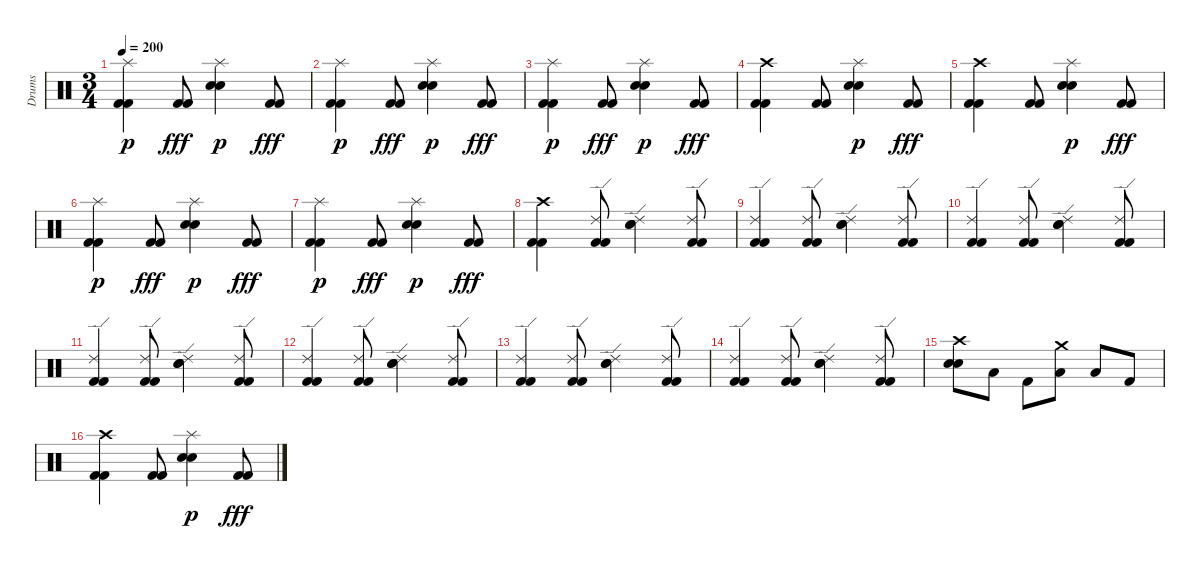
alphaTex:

\track ("Drums" "Drums") {instrument percussion bank 41}
\staff
\articulation defaults
\ts (3 4)
\tempo 200
\clef neutral
\ks c
("Kick (hit) 2" "Kick (hit) 2" "Splash (hit)").4{dy p} ("Kick (hit) 2" "Kick (hit) 2").8{dy fff} ("Snare (hit) 2" "Electric Snare (hit)" "Splash (hit)").4{dy p} ("Kick (hit) 2" "Kick (hit) 2").8{dy fff} |
("Kick (hit) 2" "Kick (hit) 2" "Splash (hit)").4{dy p} ("Kick (hit) 2" "Kick (hit) 2").8{dy fff} ("Snare (hit) 2" "Electric Snare (hit)" "Splash (hit)").4{dy p} ("Kick (hit) 2" "Kick (hit) 2").8{dy fff} |
("Kick (hit) 2" "Kick (hit) 2" "Splash (hit)").4{dy p} ("Kick (hit) 2" "Kick (hit) 2").8{dy fff} ("Snare (hit) 2" "Electric Snare (hit)" "Splash (hit)").4{dy p} ("Kick (hit) 2" "Kick (hit) 2").8{dy fff} |
("Kick (hit) 2" "Kick (hit) 2" "Crash high (hit)").4 ("Kick (hit) 2" "Kick (hit) 2").8 ("Snare (hit) 2" "Electric Snare (hit)" "Splash (hit)").4{dy p} ("Kick (hit) 2" "Kick (hit) 2").8{dy fff} |
("Kick (hit) 2" "Kick (hit) 2" "Crash high (hit)").4 ("Kick (hit) 2" "Kick (hit) 2").8 ("Snare (hit) 2" "Electric Snare (hit)" "Splash (hit)").4{dy p} ("Kick (hit) 2" "Kick (hit) 2").8{dy fff} |
("Kick (hit) 2" "Kick (hit) 2" "Splash (hit)").4{dy p} ("Kick (hit) 2" "Kick (hit) 2").8{dy fff} ("Snare (hit) 2" "Electric Snare (hit)" "Splash (hit)").4{dy p} ("Kick (hit) 2" "Kick (hit) 2").8{dy fff} |
("Kick (hit) 2" "Kick (hit) 2" "Splash (hit)").4{dy p} ("Kick (hit) 2" "Kick (hit) 2").8{dy fff} ("Snare (hit) 2" "Electric Snare (hit)" "Splash (hit)").4{dy p} ("Kick (hit) 2" "Kick (hit) 2").8{dy fff} |
("Kick (hit) 2" "Kick (hit) 2" "Crash high (hit)").4 ("Kick (hit) 2" "Kick (hit) 2" "Ride (edge) 2").8 ("Snare (hit) 2" "Electric Snare (hit)" "Ride (edge) 2").4 ("Kick (hit) 2" "Ride (edge) 2" "Kick (hit) 2").8 |
("Kick (hit) 2" "Ride (edge) 2" "Kick (hit) 2").4 ("Kick (hit) 2" "Ride (edge) 2" "Kick (hit) 2").8 ("Snare (hit) 2" "Ride (edge) 2" "Electric Snare (hit)").4 ("Kick (hit) 2" "Ride (edge) 2" "Kick (hit) 2").8 |
("Kick (hit) 2" "Ride (edge) 2" "Kick (hit) 2").4 ("Kick (hit) 2" "Ride (edge) 2" "Kick (hit) 2").8 ("Snare (hit) 2" "Ride (edge) 2" "Electric Snare (hit)").4 ("Kick (hit) 2" "Ride (edge) 2" "Kick (hit) 2").8 |
("Kick (hit) 2" "Ride (edge) 2" "Kick (hit) 2").4 ("Kick (hit) 2" "Ride (edge) 2" "Kick (hit) 2").8 ("Snare (hit) 2" "Ride (edge) 2" "Electric Snare (hit)").4 ("Kick (hit) 2" "Ride (edge) 2" "Kick (hit) 2").8 |
("Kick (hit) 2" "Ride (edge) 2" "Kick (hit) 2").4 ("Kick (hit) 2" "Ride (edge) 2" "Kick (hit) 2").8 ("Snare (hit) 2" "Ride (edge) 2" "Electric Snare (hit)").4 ("Kick (hit) 2" "Ride (edge) 2" "Kick (hit) 2").8 |
("Kick (hit) 2" "Ride (edge) 2" "Kick (hit) 2").4 ("Kick (hit) 2" "Ride (edge) 2" "Kick (hit) 2").8 ("Snare (hit) 2" "Ride (edge) 2" "Electric Snare (hit)").4 ("Kick (hit) 2" "Ride (edge) 2" "Kick (hit) 2").8 |
("Kick (hit) 2" "Ride (edge) 2" "Kick (hit) 2").4 ("Kick (hit) 2" "Ride (edge) 2" "Kick (hit) 2").8 ("Snare (hit) 2" "Ride (edge) 2" "Electric Snare (hit)").4 ("Kick (hit) 2" "Ride (edge) 2" "Kick (hit) 2").8 |
("Snare (hit) 2" "Electric Snare (hit)" "Crash high (hit)").8 "Low Tom (hit)".8 "Kick (hit) 2".8 ("Low Tom (hit)" "Crash medium (hit)").8 "Low Tom (hit)".8 "Kick (hit) 2".8 |
("Kick (hit) 2" "Kick (hit) 2" "Crash high (hit)").4 ("Kick (hit) 2" "Kick (hit) 2").8 ("Snare (hit) 2" "Electric Snare (hit)" "Splash (hit)").4{dy p} ("Kick (hit) 2" "Kick (hit) 2").8{dy fff}
